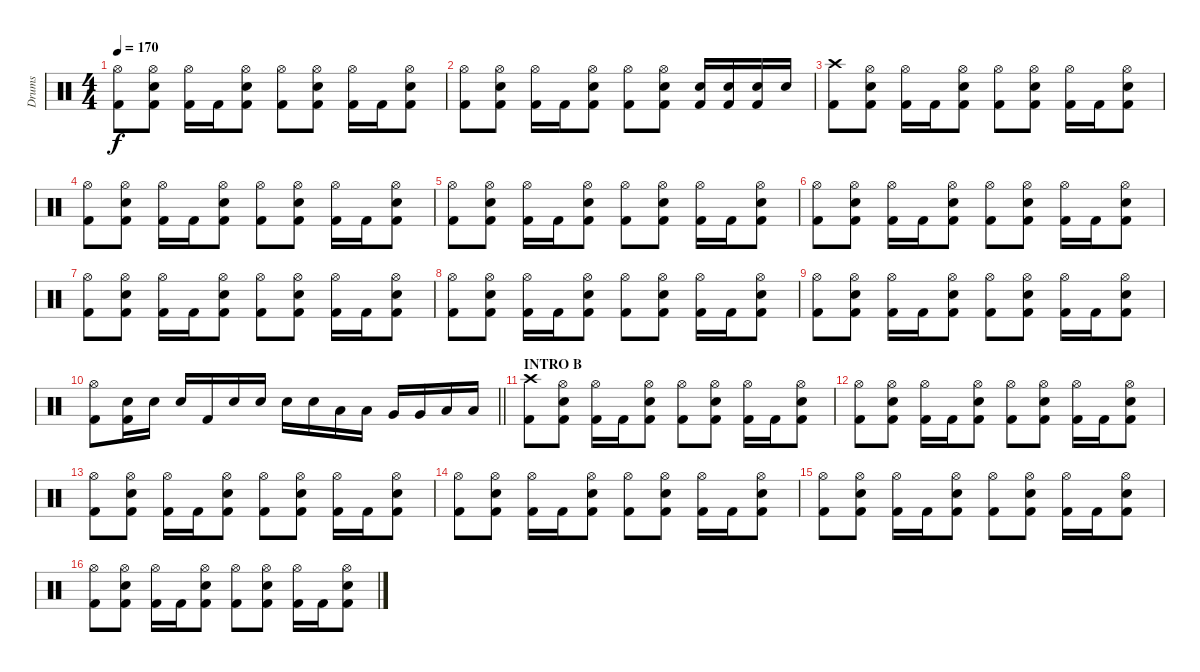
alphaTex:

\track ("Drums" "Drums") {instrument percussion}
\staff {score}
\articulation defaults
\ts (4 4)
\tempo 170
\clef neutral
\ks c
("Hi-Hat (open)" "Kick (hit) 2").8{dy f} ("Hi-Hat (open)" "Snare (hit) 2" "Kick (hit) 2").8 ("Hi-Hat (open)" "Kick (hit) 2").16 "Kick (hit) 2".16 ("Hi-Hat (open)" "Snare (hit) 2" "Kick (hit) 2").8 ("Hi-Hat (open)" "Kick (hit) 2").8 ("Hi-Hat (open)" "Snare (hit) 2" "Kick (hit) 2").8 ("Hi-Hat (open)" "Kick (hit) 2").16 "Kick (hit) 2".16 ("Hi-Hat (open)" "Snare (hit) 2" "Kick (hit) 2").8 |
("Hi-Hat (open)" "Kick (hit) 2").8 ("Hi-Hat (open)" "Snare (hit) 2" "Kick (hit) 2").8 ("Hi-Hat (open)" "Kick (hit) 2").16 "Kick (hit) 2".16 ("Hi-Hat (open)" "Snare (hit) 2" "Kick (hit) 2").8 ("Hi-Hat (open)" "Kick (hit) 2").8 ("Hi-Hat (open)" "Snare (hit) 2" "Kick (hit) 2").8 ("Snare (hit) 2" "Kick (hit) 2").16 ("Snare (hit) 2" "Kick (hit) 2").16 ("Snare (hit) 2" "Kick (hit) 2").16 "Snare (hit) 2".16 |
("Crash high (hit)" "Kick (hit) 2").8 ("Hi-Hat (open)" "Snare (hit) 2" "Kick (hit) 2").8 ("Hi-Hat (open)" "Kick (hit) 2").16 "Kick (hit) 2".16 ("Hi-Hat (open)" "Snare (hit) 2" "Kick (hit) 2").8 ("Hi-Hat (open)" "Kick (hit) 2").8 ("Hi-Hat (open)" "Snare (hit) 2" "Kick (hit) 2").8 ("Hi-Hat (open)" "Kick (hit) 2").16 "Kick (hit) 2".16 ("Hi-Hat (open)" "Snare (hit) 2" "Kick (hit) 2").8 |
("Hi-Hat (open)" "Kick (hit) 2").8 ("Hi-Hat (open)" "Snare (hit) 2" "Kick (hit) 2").8 ("Hi-Hat (open)" "Kick (hit) 2").16 "Kick (hit) 2".16 ("Hi-Hat (open)" "Snare (hit) 2" "Kick (hit) 2").8 ("Hi-Hat (open)" "Kick (hit) 2").8 ("Hi-Hat (open)" "Snare (hit) 2" "Kick (hit) 2").8 ("Hi-Hat (open)" "Kick (hit) 2").16 "Kick (hit) 2".16 ("Hi-Hat (open)" "Snare (hit) 2" "Kick (hit) 2").8 |
("Hi-Hat (open)" "Kick (hit) 2").8 ("Hi-Hat (open)" "Snare (hit) 2" "Kick (hit) 2").8 ("Hi-Hat (open)" "Kick (hit) 2").16 "Kick (hit) 2".16 ("Hi-Hat (open)" "Snare (hit) 2" "Kick (hit) 2").8 ("Hi-Hat (open)" "Kick (hit) 2").8 ("Hi-Hat (open)" "Snare (hit) 2" "Kick (hit) 2").8 ("Hi-Hat (open)" "Kick (hit) 2").16 "Kick (hit) 2".16 ("Hi-Hat (open)" "Snare (hit) 2" "Kick (hit) 2").8 |
("Hi-Hat (open)" "Kick (hit) 2").8 ("Hi-Hat (open)" "Snare (hit) 2" "Kick (hit) 2").8 ("Hi-Hat (open)" "Kick (hit) 2").16 "Kick (hit) 2".16 ("Hi-Hat (open)" "Snare (hit) 2" "Kick (hit) 2").8 ("Hi-Hat (open)" "Kick (hit) 2").8 ("Hi-Hat (open)" "Snare (hit) 2" "Kick (hit) 2").8 ("Hi-Hat (open)" "Kick (hit) 2").16 "Kick (hit) 2".16 ("Hi-Hat (open)" "Snare (hit) 2" "Kick (hit) 2").8 |
("Hi-Hat (open)" "Kick (hit) 2").8 ("Hi-Hat (open)" "Snare (hit) 2" "Kick (hit) 2").8 ("Hi-Hat (open)" "Kick (hit) 2").16 "Kick (hit) 2".16 ("Hi-Hat (open)" "Snare (hit) 2" "Kick (hit) 2").8 ("Hi-Hat (open)" "Kick (hit) 2").8 ("Hi-Hat (open)" "Snare (hit) 2" "Kick (hit) 2").8 ("Hi-Hat (open)" "Kick (hit) 2").16 "Kick (hit) 2".16 ("Hi-Hat (open)" "Snare (hit) 2" "Kick (hit) 2").8 |
("Hi-Hat (open)" "Kick (hit) 2").8 ("Hi-Hat (open)" "Snare (hit) 2" "Kick (hit) 2").8 ("Hi-Hat (open)" "Kick (hit) 2").16 "Kick (hit) 2".16 ("Hi-Hat (open)" "Snare (hit) 2" "Kick (hit) 2").8 ("Hi-Hat (open)" "Kick (hit) 2").8 ("Hi-Hat (open)" "Snare (hit) 2" "Kick (hit) 2").8 ("Hi-Hat (open)" "Kick (hit) 2").16 "Kick (hit) 2".16 ("Hi-Hat (open)" "Snare (hit) 2" "Kick (hit) 2").8 |
("Hi-Hat (open)" "Kick (hit) 2").8 ("Hi-Hat (open)" "Snare (hit) 2" "Kick (hit) 2").8 ("Hi-Hat (open)" "Kick (hit) 2").16 "Kick (hit) 2".16 ("Hi-Hat (open)" "Snare (hit) 2" "Kick (hit) 2").8 ("Hi-Hat (open)" "Kick (hit) 2").8 ("Hi-Hat (open)" "Snare (hit) 2" "Kick (hit) 2").8 ("Hi-Hat (open)" "Kick (hit) 2").16 "Kick (hit) 2".16 ("Hi-Hat (open)" "Snare (hit) 2" "Kick (hit) 2").8 |
\barLineRight lightlight
("Hi-Hat (open)" "Kick (hit) 2").8 ("Snare (hit) 2" "Kick (hit) 2").16 "Snare (hit) 2".16 "Snare (hit) 2".16 "Kick (hit) 2".16 "Snare (hit) 2".16 "Snare (hit) 2".16 "Snare (hit) 2".16 "Snare (hit) 2".16 "Low Tom (hit)".16 "Low Tom (hit)".16 "Very Low Tom (hit)".16 "Very Low Tom (hit)".16 "Low Floor Tom (hit)".16 "Low Floor Tom (hit)".16 |
\section ("" "INTRO B")
("Crash high (hit)" "Kick (hit) 2").8 ("Hi-Hat (open)" "Snare (hit) 2" "Kick (hit) 2").8 ("Hi-Hat (open)" "Kick (hit) 2").16 "Kick (hit) 2".16 ("Hi-Hat (open)" "Snare (hit) 2" "Kick (hit) 2").8 ("Hi-Hat (open)" "Kick (hit) 2").8 ("Hi-Hat (open)" "Snare (hit) 2" "Kick (hit) 2").8 ("Hi-Hat (open)" "Kick (hit) 2").16 "Kick (hit) 2".16 ("Hi-Hat (open)" "Snare (hit) 2" "Kick (hit) 2").8 |
("Hi-Hat (open)" "Kick (hit) 2").8 ("Hi-Hat (open)" "Snare (hit) 2" "Kick (hit) 2").8 ("Hi-Hat (open)" "Kick (hit) 2").16 "Kick (hit) 2".16 ("Hi-Hat (open)" "Snare (hit) 2" "Kick (hit) 2").8 ("Hi-Hat (open)" "Kick (hit) 2").8 ("Hi-Hat (open)" "Snare (hit) 2" "Kick (hit) 2").8 ("Hi-Hat (open)" "Kick (hit) 2").16 "Kick (hit) 2".16 ("Hi-Hat (open)" "Snare (hit) 2" "Kick (hit) 2").8 |
("Hi-Hat (open)" "Kick (hit) 2").8 ("Hi-Hat (open)" "Snare (hit) 2" "Kick (hit) 2").8 ("Hi-Hat (open)" "Kick (hit) 2").16 "Kick (hit) 2".16 ("Hi-Hat (open)" "Snare (hit) 2" "Kick (hit) 2").8 ("Hi-Hat (open)" "Kick (hit) 2").8 ("Hi-Hat (open)" "Snare (hit) 2" "Kick (hit) 2").8 ("Hi-Hat (open)" "Kick (hit) 2").16 "Kick (hit) 2".16 ("Hi-Hat (open)" "Snare (hit) 2" "Kick (hit) 2").8 |
("Hi-Hat (open)" "Kick (hit) 2").8 ("Hi-Hat (open)" "Snare (hit) 2" "Kick (hit) 2").8 ("Hi-Hat (open)" "Kick (hit) 2").16 "Kick (hit) 2".16 ("Hi-Hat (open)" "Snare (hit) 2" "Kick (hit) 2").8 ("Hi-Hat (open)" "Kick (hit) 2").8 ("Hi-Hat (open)" "Snare (hit) 2" "Kick (hit) 2").8 ("Hi-Hat (open)" "Kick (hit) 2").16 "Kick (hit) 2".16 ("Hi-Hat (open)" "Snare (hit) 2" "Kick (hit) 2").8 |
("Hi-Hat (open)" "Kick (hit) 2").8 ("Hi-Hat (open)" "Snare (hit) 2" "Kick (hit) 2").8 ("Hi-Hat (open)" "Kick (hit) 2").16 "Kick (hit) 2".16 ("Hi-Hat (open)" "Snare (hit) 2" "Kick (hit) 2").8 ("Hi-Hat (open)" "Kick (hit) 2").8 ("Hi-Hat (open)" "Snare (hit) 2" "Kick (hit) 2").8 ("Hi-Hat (open)" "Kick (hit) 2").16 "Kick (hit) 2".16 ("Hi-Hat (open)" "Snare (hit) 2" "Kick (hit) 2").8 |
("Hi-Hat (open)" "Kick (hit) 2").8 ("Hi-Hat (open)" "Snare (hit) 2" "Kick (hit) 2").8 ("Hi-Hat (open)" "Kick (hit) 2").16 "Kick (hit) 2".16 ("Hi-Hat (open)" "Snare (hit) 2" "Kick (hit) 2").8 ("Hi-Hat (open)" "Kick (hit) 2").8 ("Hi-Hat (open)" "Snare (hit) 2" "Kick (hit) 2").8 ("Hi-Hat (open)" "Kick (hit) 2").16 "Kick (hit) 2".16 ("Hi-Hat (open)" "Snare (hit) 2" "Kick (hit) 2").8
